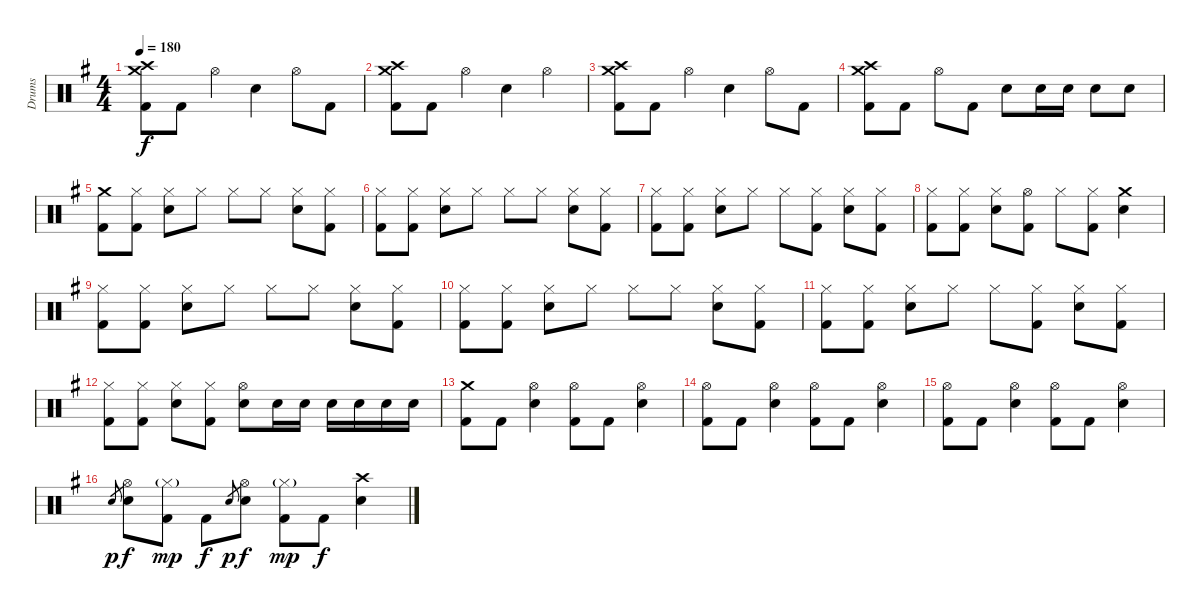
\track ("Drums" "Drums") {instrument percussion}
\staff {score}
\articulation defaults
\ts (4 4)
\tempo 180
\clef neutral
\ks g
("Crash high (hit)" "Crash medium (hit)" "Kick (hit) 2").8{dy f} "Kick (hit) 2".8 "Hi-Hat (open)".4 "Electric Snare (hit)".4 "Hi-Hat (open)".8 "Kick (hit) 2".8 |
("Crash high (hit)" "Crash medium (hit)" "Kick (hit) 2").8 "Kick (hit) 2".8 "Hi-Hat (open)".4 "Electric Snare (hit)".4 "Hi-Hat (open)".4 |
("Crash high (hit)" "Crash medium (hit)" "Kick (hit) 2").8 "Kick (hit) 2".8 "Hi-Hat (open)".4 "Electric Snare (hit)".4 "Hi-Hat (open)".8 "Kick (hit) 2".8 |
("Crash medium (hit)" "Crash high (hit)" "Kick (hit) 2").8 "Kick (hit) 2".8 "Hi-Hat (open)".8 "Kick (hit) 2".8 "Electric Snare (hit)".8 "Electric Snare (hit)".16 "Electric Snare (hit)".16 "Electric Snare (hit)".8 "Electric Snare (hit)".8 |
("Crash medium (hit)" "Kick (hit) 2").8 ("Hi-Hat (closed)" "Kick (hit) 2").8 ("Hi-Hat (closed)" "Electric Snare (hit)").8 "Hi-Hat (closed)".8 "Hi-Hat (closed)".8 "Hi-Hat (closed)".8 ("Hi-Hat (closed)" "Electric Snare (hit)").8 ("Hi-Hat (closed)" "Kick (hit) 2").8 |
("Hi-Hat (closed)" "Kick (hit) 2").8 ("Hi-Hat (closed)" "Kick (hit) 2").8 ("Hi-Hat (closed)" "Electric Snare (hit)").8 "Hi-Hat (closed)".8 "Hi-Hat (closed)".8 "Hi-Hat (closed)".8 ("Hi-Hat (closed)" "Electric Snare (hit)").8 ("Hi-Hat (closed)" "Kick (hit) 2").8 |
("Hi-Hat (closed)" "Kick (hit) 2").8 ("Hi-Hat (closed)" "Kick (hit) 2").8 ("Hi-Hat (closed)" "Electric Snare (hit)").8 "Hi-Hat (closed)".8 "Hi-Hat (closed)".8 ("Hi-Hat (closed)" "Kick (hit) 2").8 ("Hi-Hat (closed)" "Electric Snare (hit)").8 ("Hi-Hat (closed)" "Kick (hit) 2").8 |
("Hi-Hat (closed)" "Kick (hit) 2").8 ("Hi-Hat (closed)" "Kick (hit) 2").8 ("Hi-Hat (closed)" "Electric Snare (hit)").8 ("Hi-Hat (open)" "Kick (hit) 2").8 "Hi-Hat (closed)".8 ("Hi-Hat (closed)" "Kick (hit) 2").8 ("Crash medium (hit)" "Electric Snare (hit)").4 |
("Hi-Hat (closed)" "Kick (hit) 2").8 ("Hi-Hat (closed)" "Kick (hit) 2").8 ("Hi-Hat (closed)" "Electric Snare (hit)").8 "Hi-Hat (closed)".8 "Hi-Hat (closed)".8 "Hi-Hat (closed)".8 ("Hi-Hat (closed)" "Electric Snare (hit)").8 ("Hi-Hat (closed)" "Kick (hit) 2").8 |
("Hi-Hat (closed)" "Kick (hit) 2").8 ("Hi-Hat (closed)" "Kick (hit) 2").8 ("Hi-Hat (closed)" "Electric Snare (hit)").8 "Hi-Hat (closed)".8 "Hi-Hat (closed)".8 "Hi-Hat (closed)".8 ("Hi-Hat (closed)" "Electric Snare (hit)").8 ("Hi-Hat (closed)" "Kick (hit) 2").8 |
("Hi-Hat (closed)" "Kick (hit) 2").8 ("Hi-Hat (closed)" "Kick (hit) 2").8 ("Hi-Hat (closed)" "Electric Snare (hit)").8 "Hi-Hat (closed)".8 "Hi-Hat (closed)".8 ("Hi-Hat (closed)" "Kick (hit) 2").8 ("Hi-Hat (closed)" "Electric Snare (hit)").8 ("Hi-Hat (closed)" "Kick (hit) 2").8 |
("Hi-Hat (closed)" "Kick (hit) 2").8 ("Hi-Hat (closed)" "Kick (hit) 2").8 ("Hi-Hat (closed)" "Electric Snare (hit)").8 ("Hi-Hat (closed)" "Kick (hit) 2").8 ("Hi-Hat (open)" "Electric Snare (hit)").8 "Electric Snare (hit)".16 "Electric Snare (hit)".16 "Electric Snare (hit)".16 "Electric Snare (hit)".16 "Electric Snare (hit)".16 "Electric Snare (hit)".16 |
("Crash medium (hit)" "Kick (hit) 2").8 "Kick (hit) 2".8 ("Hi-Hat (open)" "Electric Snare (hit)").4 ("Hi-Hat (open)" "Kick (hit) 2").8 "Kick (hit) 2".8 ("Hi-Hat (open)" "Electric Snare (hit)").4 |
("Hi-Hat (open)" "Kick (hit) 2").8 "Kick (hit) 2".8 ("Hi-Hat (open)" "Electric Snare (hit)").4 ("Hi-Hat (open)" "Kick (hit) 2").8 "Kick (hit) 2".8 ("Hi-Hat (open)" "Electric Snare (hit)").4 |
("Hi-Hat (open)" "Kick (hit) 2").8 "Kick (hit) 2".8 ("Hi-Hat (open)" "Electric Snare (hit)").4 ("Hi-Hat (open)" "Kick (hit) 2").8 "Kick (hit) 2".8 ("Hi-Hat (open)" "Electric Snare (hit)").4 |
"Electric Snare (hit)".8{gr dy p} ("Hi-Hat (open)" "Electric Snare (hit)").8{dy f} ("Hi-Hat (closed)"{g} "Kick (hit) 2").8{dy mp} "Kick (hit) 2".8{dy f} "Electric Snare (hit)".8{gr dy p} ("Hi-Hat (open)" "Electric Snare (hit)").8{dy f} ("Hi-Hat (closed)"{g} "Kick (hit) 2").8{dy mp} "Kick (hit) 2".8{dy f} ("Crash high (hit)" "Electric Snare (hit)").4
